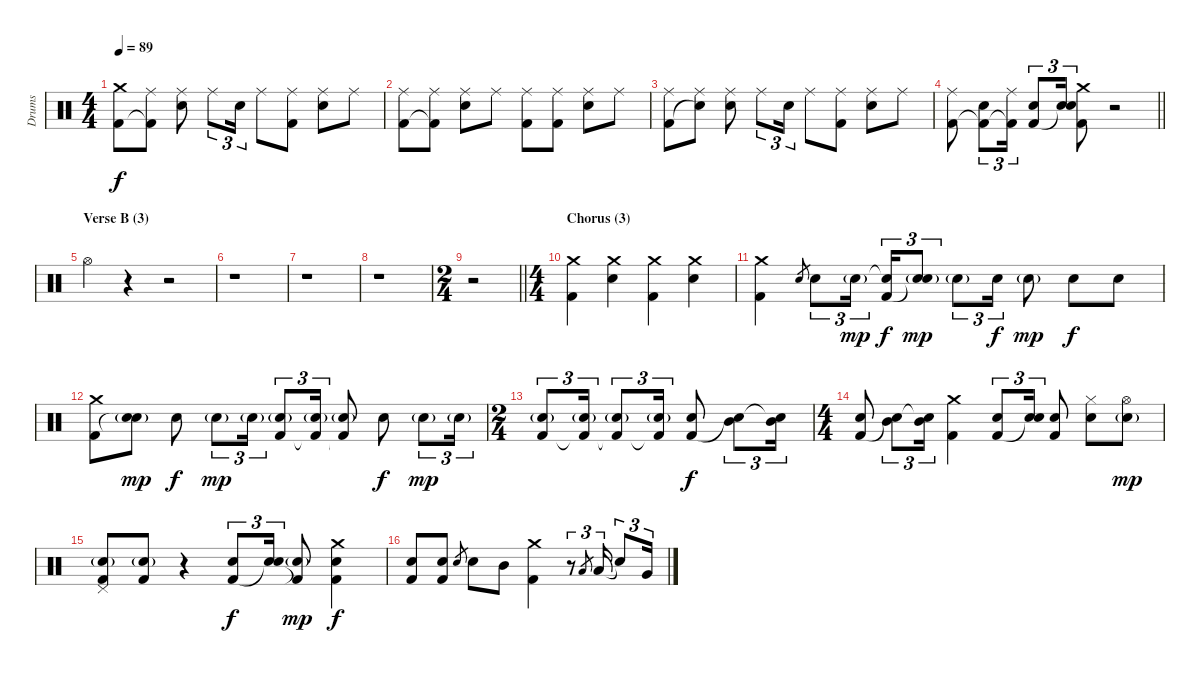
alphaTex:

\track ("Drums" "Drums") {instrument percussion}
\staff {score}
\articulation defaults
\ts (4 4)
\tempo 89
\clef neutral
\ks c
("Crash medium (hit)" "Kick (hit) 2").8{dy f} ("Ride (middle)" "Kick (hit) 2"{t}).8 ("Ride (middle)" "Electric Snare (hit)").8 "Ride (middle)".8{tu (3 2)} "Electric Snare (hit)".16{tu (3 2)} "Ride (middle)".8 ("Ride (middle)" "Kick (hit) 2").8 ("Ride (middle)" "Electric Snare (hit)").8 "Ride (middle)".8 |
("Ride (middle)" "Kick (hit) 2").8 ("Ride (middle)" "Kick (hit) 2"{t}).8 ("Ride (middle)" "Electric Snare (hit)").8 "Ride (middle)".8 ("Ride (middle)" "Kick (hit) 2").8 ("Ride (middle)" "Kick (hit) 2").8 ("Ride (middle)" "Electric Snare (hit)").8 "Ride (middle)".8 |
("Ride (middle)" "Kick (hit) 2").8 ("Ride (middle)" "Snare (hit)"{t}).8 ("Ride (middle)" "Electric Snare (hit)").8 "Ride (middle)".8{tu (3 2)} "Electric Snare (hit)".16{tu (3 2)} "Ride (middle)".8 ("Ride (middle)" "Kick (hit) 2").8 ("Ride (middle)" "Electric Snare (hit)").8 "Ride (middle)".8 |
\barLineRight lightlight
("Ride (middle)" "Kick (hit) 2").8 ("Electric Snare (hit)" "Kick (hit) 2"{t}).8{tu (3 2)} ("Ride (middle)" "Kick (hit) 2"{t}).16{tu (3 2)} ("Electric Snare (hit)" "Kick (hit) 2").8{tu (3 2)} ("Electric Snare (hit)" "Snare (hit)"{t}).16{tu (3 2)} ("Crash medium (hit)" "Kick (hit) 2").8 r.2 |
\section ("" "Verse B (3)")
"Hi-Hat (open)".4 r.4 r.2 |
r.1 |
r.1 |
r.1 |
\ts (2 4)
\barLineRight lightlight
r.2 |
\ts (4 4)
\section ("" "Chorus (3)")
("Crash medium (hit)" "Kick (hit) 2").4 ("Crash medium (hit)" "Electric Snare (hit)").4 ("Crash medium (hit)" "Kick (hit) 2").4 ("Crash medium (hit)" "Electric Snare (hit)").4 |
("Crash medium (hit)" "Kick (hit) 2").4 "Electric Snare (hit)".8{gr} "Electric Snare (hit)".8{tu (3 2)} "Electric Snare (hit)"{g}.16{tu (3 2) dy mp} ("Snare (hit)"{t} "Kick (hit) 2").16{tu (3 2) dy f} ("Electric Snare (hit)"{g} "Snare (hit)"{t}).8{tu (3 2) dy mp} "Electric Snare (hit)"{g}.8{tu (3 2)} "Electric Snare (hit)".16{tu (3 2) dy f} "Electric Snare (hit)"{g}.8{dy mp} "Electric Snare (hit)".8{dy f} "Electric Snare (hit)".8 |
("Crash medium (hit)" "Kick (hit) 2").8 ("Electric Snare (hit)"{g} "Snare (hit)"{t}).8{dy mp} "Electric Snare (hit)".8{dy f} "Electric Snare (hit)"{g}.8{tu (3 2) dy mp} "Electric Snare (hit)"{g}.16{tu (3 2)} ("Electric Snare (hit)"{g} "Kick (hit) 2").8{tu (3 2)} ("Electric Snare (hit)"{g} "Kick (hit) 2"{t}).16{tu (3 2)} ("Electric Snare (hit)"{g} "Kick (hit) 2"{t}).8 "Electric Snare (hit)".8{dy f} "Electric Snare (hit)"{g}.8{tu (3 2) dy mp} "Electric Snare (hit)"{g}.16{tu (3 2)} |
\ts (2 4)
("Electric Snare (hit)"{g} "Kick (hit) 2").8{tu (3 2)} ("Electric Snare (hit)"{g} "Kick (hit) 2"{t}).16{tu (3 2)} ("Electric Snare (hit)"{g} "Kick (hit) 2"{t}).8{tu (3 2)} ("Electric Snare (hit)"{g} "Kick (hit) 2"{t}).16{tu (3 2)} ("Electric Snare (hit)" "Kick (hit) 2").8{dy f} ("Mid Tom (hit)" "Snare (hit)"{t}).8{tu (3 2)} ("Mid Tom (hit)" "Snare (hit)"{t}).16{tu (3 2)} |
\ts (4 4)
("Electric Snare (hit)" "Kick (hit) 2").8 ("Mid Tom (hit)" "Snare (hit)"{t}).8{tu (3 2)} ("Mid Tom (hit)" "Snare (hit)"{t}).16{tu (3 2)} ("Crash medium (hit)" "Kick (hit) 2").4 ("Electric Snare (hit)" "Kick (hit) 2").8{tu (3 2)} ("Electric Snare (hit)" "Snare (hit)"{t}).16{tu (3 2)} ("Electric Snare (hit)" "Kick (hit) 2").8 ("Hi-Hat (closed)" "Electric Snare (hit)").8 ("Hi-Hat (open)" "Electric Snare (hit)"{g}).8{dy mp} |
("Pedal Hi-Hat (hit)" "Electric Snare (hit)"{g} "Kick (hit) 2").8 ("Electric Snare (hit)"{g} "Kick (hit) 2").8 r.4 ("Electric Snare (hit)" "Kick (hit) 2").8{tu (3 2) dy f} ("Electric Snare (hit)" "Snare (hit)"{t}).16{tu (3 2)} ("Electric Snare (hit)"{g} "Kick (hit) 2"{t}).8{dy mp} ("Crash medium (hit)" "Electric Snare (hit)" "Kick (hit) 2").4{dy f} |
("Electric Snare (hit)" "Kick (hit) 2").8 ("Electric Snare (hit)" "Kick (hit) 2").8 "Electric Snare (hit)".8{gr} "Electric Snare (hit)".8 "Mid Tom (hit)".8 ("Crash medium (hit)" "Kick (hit) 2").4 r.8{tu (3 2)} "Low Tom (hit)".8{gr} "Low Tom (hit)".16{tu (3 2)} "Snare (hit)"{t}.8{tu (3 2)} "Very Low Tom (hit)".16{tu (3 2)}
